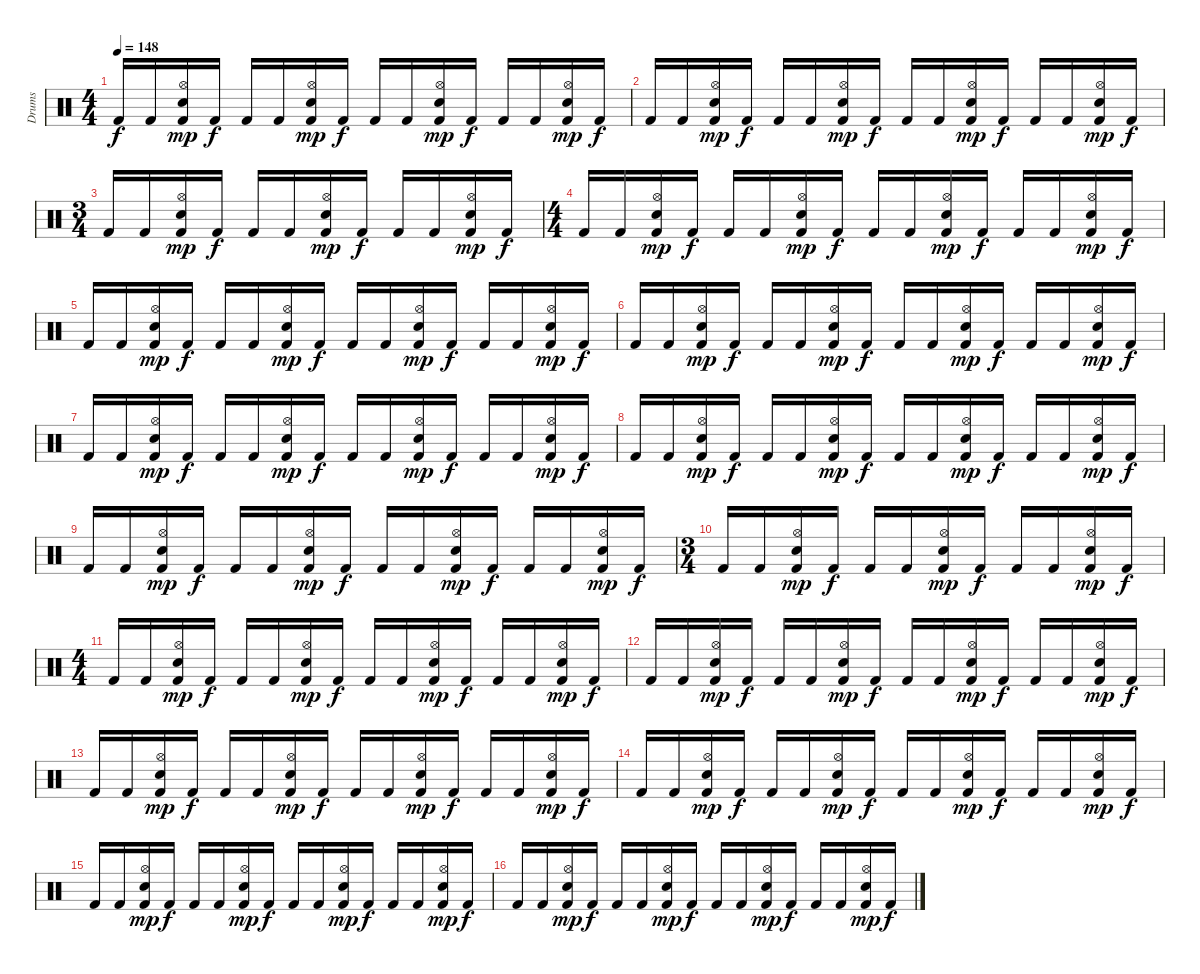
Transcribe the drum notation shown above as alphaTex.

\track ("Drums" "Drums") {instrument percussion}
\staff
\articulation defaults
\ts (4 4)
\tempo 148
\clef neutral
\ks c "Kick (hit) 2".16{dy f} "Kick (hit) 2".16
("Hi-Hat (open)" "Kick (hit) 2" "Electric Snare (hit)").16{dy mp} "Kick (hit) 2".16{dy f} "Kick (hit) 2".16 "Kick (hit) 2".16 ("Hi-Hat (open)" "Kick (hit) 2" "Electric Snare (hit)").16{dy mp} "Kick (hit) 2".16{dy f} "Kick (hit) 2".16 "Kick (hit) 2".16 ("Hi-Hat (open)" "Kick (hit) 2" "Electric Snare (hit)").16{dy mp} "Kick (hit) 2".16{dy f} "Kick (hit) 2".16 "Kick (hit) 2".16 ("Hi-Hat (open)" "Kick (hit) 2" "Electric Snare (hit)").16{dy mp} "Kick (hit) 2".16{dy f} |
"Kick (hit) 2".16 "Kick (hit) 2".16 ("Hi-Hat (open)" "Kick (hit) 2" "Electric Snare (hit)").16{dy mp} "Kick (hit) 2".16{dy f} "Kick (hit) 2".16 "Kick (hit) 2".16 ("Hi-Hat (open)" "Kick (hit) 2" "Electric Snare (hit)").16{dy mp} "Kick (hit) 2".16{dy f} "Kick (hit) 2".16 "Kick (hit) 2".16 ("Hi-Hat (open)" "Kick (hit) 2" "Electric Snare (hit)").16{dy mp} "Kick (hit) 2".16{dy f} "Kick (hit) 2".16 "Kick (hit) 2".16 ("Hi-Hat (open)" "Kick (hit) 2" "Electric Snare (hit)").16{dy mp} "Kick (hit) 2".16{dy f} |
\ts (3 4)
"Kick (hit) 2".16 "Kick (hit) 2".16 ("Hi-Hat (open)" "Kick (hit) 2" "Electric Snare (hit)").16{dy mp} "Kick (hit) 2".16{dy f} "Kick (hit) 2".16 "Kick (hit) 2".16 ("Hi-Hat (open)" "Kick (hit) 2" "Electric Snare (hit)").16{dy mp} "Kick (hit) 2".16{dy f} "Kick (hit) 2".16 "Kick (hit) 2".16 ("Hi-Hat (open)" "Kick (hit) 2" "Electric Snare (hit)").16{dy mp} "Kick (hit) 2".16{dy f} |
\ts (4 4)
"Kick (hit) 2".16 "Kick (hit) 2".16 ("Hi-Hat (open)" "Kick (hit) 2" "Electric Snare (hit)").16{dy mp} "Kick (hit) 2".16{dy f} "Kick (hit) 2".16 "Kick (hit) 2".16 ("Hi-Hat (open)" "Kick (hit) 2" "Electric Snare (hit)").16{dy mp} "Kick (hit) 2".16{dy f} "Kick (hit) 2".16 "Kick (hit) 2".16 ("Hi-Hat (open)" "Kick (hit) 2" "Electric Snare (hit)").16{dy mp} "Kick (hit) 2".16{dy f} "Kick (hit) 2".16 "Kick (hit) 2".16 ("Hi-Hat (open)" "Kick (hit) 2" "Electric Snare (hit)").16{dy mp} "Kick (hit) 2".16{dy f} |
"Kick (hit) 2".16 "Kick (hit) 2".16 ("Hi-Hat (open)" "Kick (hit) 2" "Electric Snare (hit)").16{dy mp} "Kick (hit) 2".16{dy f} "Kick (hit) 2".16 "Kick (hit) 2".16 ("Hi-Hat (open)" "Kick (hit) 2" "Electric Snare (hit)").16{dy mp} "Kick (hit) 2".16{dy f} "Kick (hit) 2".16 "Kick (hit) 2".16 ("Hi-Hat (open)" "Kick (hit) 2" "Electric Snare (hit)").16{dy mp} "Kick (hit) 2".16{dy f} "Kick (hit) 2".16 "Kick (hit) 2".16 ("Hi-Hat (open)" "Kick (hit) 2" "Electric Snare (hit)").16{dy mp} "Kick (hit) 2".16{dy f} |
"Kick (hit) 2".16 "Kick (hit) 2".16 ("Hi-Hat (open)" "Kick (hit) 2" "Electric Snare (hit)").16{dy mp} "Kick (hit) 2".16{dy f} "Kick (hit) 2".16 "Kick (hit) 2".16 ("Hi-Hat (open)" "Kick (hit) 2" "Electric Snare (hit)").16{dy mp} "Kick (hit) 2".16{dy f} "Kick (hit) 2".16 "Kick (hit) 2".16 ("Hi-Hat (open)" "Kick (hit) 2" "Electric Snare (hit)").16{dy mp} "Kick (hit) 2".16{dy f} "Kick (hit) 2".16 "Kick (hit) 2".16 ("Hi-Hat (open)" "Kick (hit) 2" "Electric Snare (hit)").16{dy mp} "Kick (hit) 2".16{dy f} |
"Kick (hit) 2".16 "Kick (hit) 2".16 ("Hi-Hat (open)" "Kick (hit) 2" "Electric Snare (hit)").16{dy mp} "Kick (hit) 2".16{dy f} "Kick (hit) 2".16 "Kick (hit) 2".16 ("Hi-Hat (open)" "Kick (hit) 2" "Electric Snare (hit)").16{dy mp} "Kick (hit) 2".16{dy f} "Kick (hit) 2".16 "Kick (hit) 2".16 ("Hi-Hat (open)" "Kick (hit) 2" "Electric Snare (hit)").16{dy mp} "Kick (hit) 2".16{dy f} "Kick (hit) 2".16 "Kick (hit) 2".16 ("Hi-Hat (open)" "Kick (hit) 2" "Electric Snare (hit)").16{dy mp} "Kick (hit) 2".16{dy f} |
"Kick (hit) 2".16 "Kick (hit) 2".16 ("Hi-Hat (open)" "Kick (hit) 2" "Electric Snare (hit)").16{dy mp} "Kick (hit) 2".16{dy f} "Kick (hit) 2".16 "Kick (hit) 2".16 ("Hi-Hat (open)" "Kick (hit) 2" "Electric Snare (hit)").16{dy mp} "Kick (hit) 2".16{dy f} "Kick (hit) 2".16 "Kick (hit) 2".16 ("Hi-Hat (open)" "Kick (hit) 2" "Electric Snare (hit)").16{dy mp} "Kick (hit) 2".16{dy f} "Kick (hit) 2".16 "Kick (hit) 2".16 ("Hi-Hat (open)" "Kick (hit) 2" "Electric Snare (hit)").16{dy mp} "Kick (hit) 2".16{dy f} |
"Kick (hit) 2".16 "Kick (hit) 2".16 ("Hi-Hat (open)" "Kick (hit) 2" "Electric Snare (hit)").16{dy mp} "Kick (hit) 2".16{dy f} "Kick (hit) 2".16 "Kick (hit) 2".16 ("Hi-Hat (open)" "Kick (hit) 2" "Electric Snare (hit)").16{dy mp} "Kick (hit) 2".16{dy f} "Kick (hit) 2".16 "Kick (hit) 2".16 ("Hi-Hat (open)" "Kick (hit) 2" "Electric Snare (hit)").16{dy mp} "Kick (hit) 2".16{dy f} "Kick (hit) 2".16 "Kick (hit) 2".16 ("Hi-Hat (open)" "Kick (hit) 2" "Electric Snare (hit)").16{dy mp} "Kick (hit) 2".16{dy f} |
\ts (3 4)
"Kick (hit) 2".16 "Kick (hit) 2".16 ("Hi-Hat (open)" "Kick (hit) 2" "Electric Snare (hit)").16{dy mp} "Kick (hit) 2".16{dy f} "Kick (hit) 2".16 "Kick (hit) 2".16 ("Hi-Hat (open)" "Kick (hit) 2" "Electric Snare (hit)").16{dy mp} "Kick (hit) 2".16{dy f} "Kick (hit) 2".16 "Kick (hit) 2".16 ("Hi-Hat (open)" "Kick (hit) 2" "Electric Snare (hit)").16{dy mp} "Kick (hit) 2".16{dy f} |
\ts (4 4)
"Kick (hit) 2".16 "Kick (hit) 2".16 ("Hi-Hat (open)" "Kick (hit) 2" "Electric Snare (hit)").16{dy mp} "Kick (hit) 2".16{dy f} "Kick (hit) 2".16 "Kick (hit) 2".16 ("Hi-Hat (open)" "Kick (hit) 2" "Electric Snare (hit)").16{dy mp} "Kick (hit) 2".16{dy f} "Kick (hit) 2".16 "Kick (hit) 2".16 ("Hi-Hat (open)" "Kick (hit) 2" "Electric Snare (hit)").16{dy mp} "Kick (hit) 2".16{dy f} "Kick (hit) 2".16 "Kick (hit) 2".16 ("Hi-Hat (open)" "Kick (hit) 2" "Electric Snare (hit)").16{dy mp} "Kick (hit) 2".16{dy f} |
"Kick (hit) 2".16 "Kick (hit) 2".16 ("Hi-Hat (open)" "Kick (hit) 2" "Electric Snare (hit)").16{dy mp} "Kick (hit) 2".16{dy f} "Kick (hit) 2".16 "Kick (hit) 2".16 ("Hi-Hat (open)" "Kick (hit) 2" "Electric Snare (hit)").16{dy mp} "Kick (hit) 2".16{dy f} "Kick (hit) 2".16 "Kick (hit) 2".16 ("Hi-Hat (open)" "Kick (hit) 2" "Electric Snare (hit)").16{dy mp} "Kick (hit) 2".16{dy f} "Kick (hit) 2".16 "Kick (hit) 2".16 ("Hi-Hat (open)" "Kick (hit) 2" "Electric Snare (hit)").16{dy mp} "Kick (hit) 2".16{dy f} |
"Kick (hit) 2".16 "Kick (hit) 2".16 ("Hi-Hat (open)" "Kick (hit) 2" "Electric Snare (hit)").16{dy mp} "Kick (hit) 2".16{dy f} "Kick (hit) 2".16 "Kick (hit) 2".16 ("Hi-Hat (open)" "Kick (hit) 2" "Electric Snare (hit)").16{dy mp} "Kick (hit) 2".16{dy f} "Kick (hit) 2".16 "Kick (hit) 2".16 ("Hi-Hat (open)" "Kick (hit) 2" "Electric Snare (hit)").16{dy mp} "Kick (hit) 2".16{dy f} "Kick (hit) 2".16 "Kick (hit) 2".16 ("Hi-Hat (open)" "Kick (hit) 2" "Electric Snare (hit)").16{dy mp} "Kick (hit) 2".16{dy f} |
"Kick (hit) 2".16 "Kick (hit) 2".16 ("Hi-Hat (open)" "Kick (hit) 2" "Electric Snare (hit)").16{dy mp} "Kick (hit) 2".16{dy f} "Kick (hit) 2".16 "Kick (hit) 2".16 ("Hi-Hat (open)" "Kick (hit) 2" "Electric Snare (hit)").16{dy mp} "Kick (hit) 2".16{dy f} "Kick (hit) 2".16 "Kick (hit) 2".16 ("Hi-Hat (open)" "Kick (hit) 2" "Electric Snare (hit)").16{dy mp} "Kick (hit) 2".16{dy f} "Kick (hit) 2".16 "Kick (hit) 2".16 ("Hi-Hat (open)" "Kick (hit) 2" "Electric Snare (hit)").16{dy mp} "Kick (hit) 2".16{dy f} |
"Kick (hit) 2".16 "Kick (hit) 2".16 ("Hi-Hat (open)" "Kick (hit) 2" "Electric Snare (hit)").16{dy mp} "Kick (hit) 2".16{dy f} "Kick (hit) 2".16 "Kick (hit) 2".16 ("Hi-Hat (open)" "Kick (hit) 2" "Electric Snare (hit)").16{dy mp} "Kick (hit) 2".16{dy f} "Kick (hit) 2".16 "Kick (hit) 2".16 ("Hi-Hat (open)" "Kick (hit) 2" "Electric Snare (hit)").16{dy mp} "Kick (hit) 2".16{dy f} "Kick (hit) 2".16 "Kick (hit) 2".16 ("Hi-Hat (open)" "Kick (hit) 2" "Electric Snare (hit)").16{dy mp} "Kick (hit) 2".16{dy f} |
"Kick (hit) 2".16 "Kick (hit) 2".16 ("Hi-Hat (open)" "Kick (hit) 2" "Electric Snare (hit)").16{dy mp} "Kick (hit) 2".16{dy f} "Kick (hit) 2".16 "Kick (hit) 2".16 ("Hi-Hat (open)" "Kick (hit) 2" "Electric Snare (hit)").16{dy mp} "Kick (hit) 2".16{dy f} "Kick (hit) 2".16 "Kick (hit) 2".16 ("Hi-Hat (open)" "Kick (hit) 2" "Electric Snare (hit)").16{dy mp} "Kick (hit) 2".16{dy f} "Kick (hit) 2".16 "Kick (hit) 2".16 ("Hi-Hat (open)" "Kick (hit) 2" "Electric Snare (hit)").16{dy mp} "Kick (hit) 2".16{dy f}
